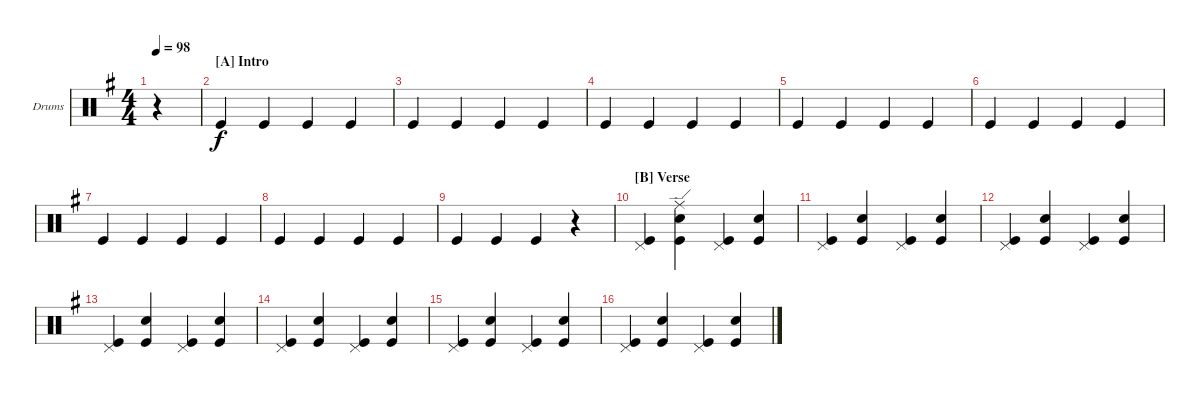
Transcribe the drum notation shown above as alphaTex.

\defaultSystemsLayout 4
\bracketExtendMode groupsimilarinstruments
\firstSystemTrackNameOrientation horizontal
\otherSystemsTrackNameOrientation horizontal
\track ("Matt Helders" "Drums") {multiBarRest instrument percussion}
\staff {score}
\articulation defaults
\ts (4 4)
\ac
\tempo 98
\clef neutral
\ks g
r.4{dy f} |
\section ("A" "Intro")
"Kick (hit)".4 "Kick (hit)".4 "Kick (hit)".4 "Kick (hit)".4 |
"Kick (hit)".4 "Kick (hit)".4 "Kick (hit)".4 "Kick (hit)".4 |
"Kick (hit)".4 "Kick (hit)".4 "Kick (hit)".4 "Kick (hit)".4 |
"Kick (hit)".4 "Kick (hit)".4 "Kick (hit)".4 "Kick (hit)".4 |
"Kick (hit)".4 "Kick (hit)".4 "Kick (hit)".4 "Kick (hit)".4 |
"Kick (hit)".4 "Kick (hit)".4 "Kick (hit)".4 "Kick (hit)".4 |
"Kick (hit)".4 "Kick (hit)".4 "Kick (hit)".4 "Kick (hit)".4 |
"Kick (hit)".4 "Kick (hit)".4 "Kick (hit)".4 r.4 |
\section ("B" "Verse")
("Kick (hit)" "Pedal Hi-Hat (hit)").4 ("Snare (hit) 2" "Kick (hit)" "Ride (edge)").4 ("Kick (hit)" "Pedal Hi-Hat (hit)").4 ("Snare (hit) 2" "Kick (hit)").4 |
("Kick (hit)" "Pedal Hi-Hat (hit)").4 ("Snare (hit) 2" "Kick (hit)").4 ("Kick (hit)" "Pedal Hi-Hat (hit)").4 ("Snare (hit) 2" "Kick (hit)").4 |
("Kick (hit)" "Pedal Hi-Hat (hit)").4 ("Snare (hit) 2" "Kick (hit)").4 ("Kick (hit)" "Pedal Hi-Hat (hit)").4 ("Snare (hit) 2" "Kick (hit)").4 |
("Kick (hit)" "Pedal Hi-Hat (hit)").4 ("Snare (hit) 2" "Kick (hit)").4 ("Kick (hit)" "Pedal Hi-Hat (hit)").4 ("Snare (hit) 2" "Kick (hit)").4 |
("Kick (hit)" "Pedal Hi-Hat (hit)").4 ("Snare (hit) 2" "Kick (hit)").4 ("Kick (hit)" "Pedal Hi-Hat (hit)").4 ("Snare (hit) 2" "Kick (hit)").4 |
("Kick (hit)" "Pedal Hi-Hat (hit)").4 ("Snare (hit) 2" "Kick (hit)").4 ("Kick (hit)" "Pedal Hi-Hat (hit)").4 ("Snare (hit) 2" "Kick (hit)").4 |
("Kick (hit)" "Pedal Hi-Hat (hit)").4 ("Snare (hit) 2" "Kick (hit)").4 ("Kick (hit)" "Pedal Hi-Hat (hit)").4 ("Snare (hit) 2" "Kick (hit)").4
